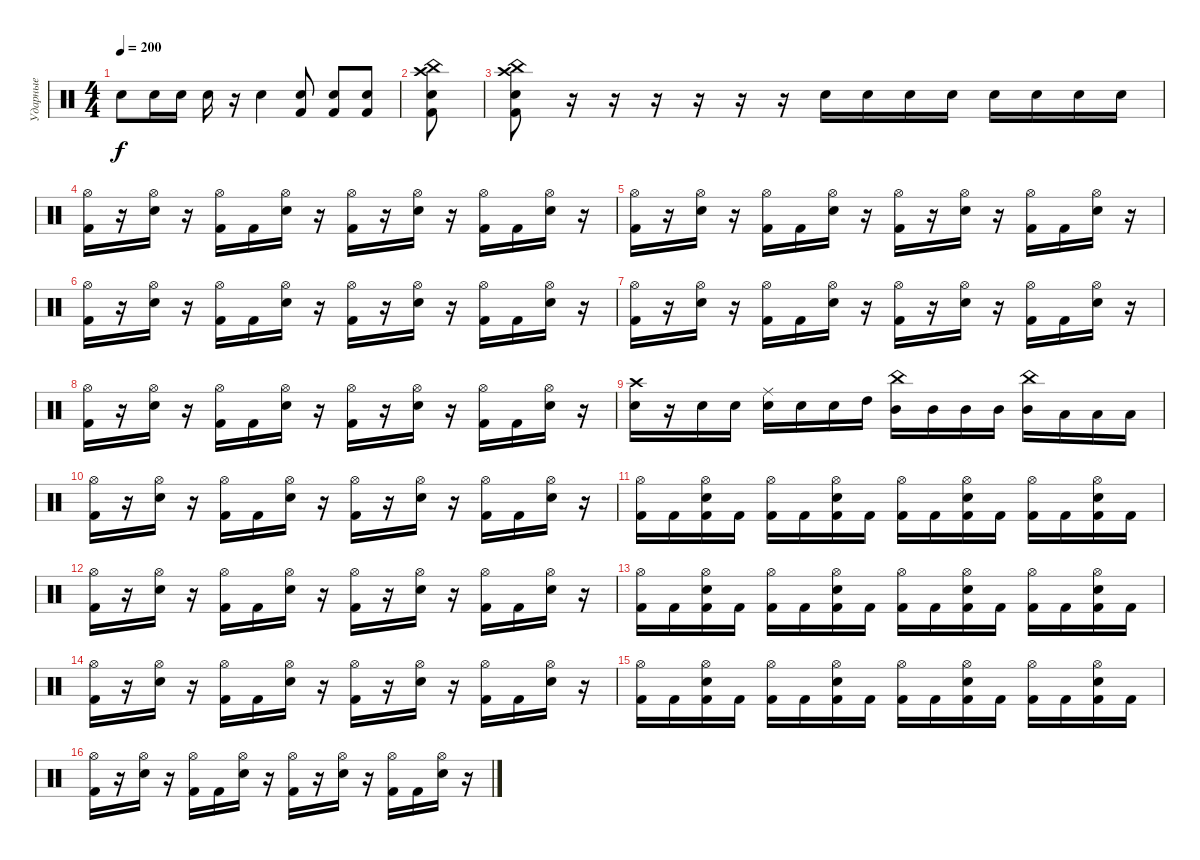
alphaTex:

\track ("Ударные" "Ударные") {instrument percussion}
\staff {score}
\articulation defaults
\ts (4 4)
\tempo 200
\clef neutral
\ks c "Electric Snare (hit)".8{dy f} "Electric Snare (hit)".16 "Electric Snare (hit)".16 "Electric Snare (hit)".16
r.16 "Electric Snare (hit)".4 ("Electric Snare (hit)" "Kick (hit) 2").8 ("Electric Snare (hit)" "Kick (hit) 2").8 ("Electric Snare (hit)" "Kick (hit) 2").8 |
("Kick (hit) 2" "Crash high (hit)" "China (hit)" "Electric Snare (hit)").8 |
("Kick (hit) 2" "Electric Snare (hit)" "Crash high (hit)" "China (hit)").8 r.16 r.16 r.16 r.16 r.16 r.16 "Electric Snare (hit)".16 "Electric Snare (hit)".16 "Electric Snare (hit)".16 "Electric Snare (hit)".16 "Electric Snare (hit)".16 "Electric Snare (hit)".16 "Electric Snare (hit)".16 "Electric Snare (hit)".16 |
("Kick (hit) 2" "Hi-Hat (open)").16 r.16 ("Electric Snare (hit)" "Hi-Hat (open)").16 r.16 ("Kick (hit) 2" "Hi-Hat (open)").16 "Kick (hit) 2".16 ("Electric Snare (hit)" "Hi-Hat (open)").16 r.16 ("Kick (hit) 2" "Hi-Hat (open)").16 r.16 ("Electric Snare (hit)" "Hi-Hat (open)").16 r.16 ("Kick (hit) 2" "Hi-Hat (open)").16 "Kick (hit) 2".16 ("Electric Snare (hit)" "Hi-Hat (open)").16 r.16 |
("Kick (hit) 2" "Hi-Hat (open)").16 r.16 ("Electric Snare (hit)" "Hi-Hat (open)").16 r.16 ("Kick (hit) 2" "Hi-Hat (open)").16 "Kick (hit) 2".16 ("Electric Snare (hit)" "Hi-Hat (open)").16 r.16 ("Kick (hit) 2" "Hi-Hat (open)").16 r.16 ("Electric Snare (hit)" "Hi-Hat (open)").16 r.16 ("Kick (hit) 2" "Hi-Hat (open)").16 "Kick (hit) 2".16 ("Electric Snare (hit)" "Hi-Hat (open)").16 r.16 |
("Kick (hit) 2" "Hi-Hat (open)").16 r.16 ("Electric Snare (hit)" "Hi-Hat (open)").16 r.16 ("Kick (hit) 2" "Hi-Hat (open)").16 "Kick (hit) 2".16 ("Electric Snare (hit)" "Hi-Hat (open)").16 r.16 ("Kick (hit) 2" "Hi-Hat (open)").16 r.16 ("Electric Snare (hit)" "Hi-Hat (open)").16 r.16 ("Kick (hit) 2" "Hi-Hat (open)").16 "Kick (hit) 2".16 ("Electric Snare (hit)" "Hi-Hat (open)").16 r.16 |
("Kick (hit) 2" "Hi-Hat (open)").16 r.16 ("Electric Snare (hit)" "Hi-Hat (open)").16 r.16 ("Kick (hit) 2" "Hi-Hat (open)").16 "Kick (hit) 2".16 ("Electric Snare (hit)" "Hi-Hat (open)").16 r.16 ("Kick (hit) 2" "Hi-Hat (open)").16 r.16 ("Electric Snare (hit)" "Hi-Hat (open)").16 r.16 ("Kick (hit) 2" "Hi-Hat (open)").16 "Kick (hit) 2".16 ("Electric Snare (hit)" "Hi-Hat (open)").16 r.16 |
("Kick (hit) 2" "Hi-Hat (open)").16 r.16 ("Electric Snare (hit)" "Hi-Hat (open)").16 r.16 ("Kick (hit) 2" "Hi-Hat (open)").16 "Kick (hit) 2".16 ("Electric Snare (hit)" "Hi-Hat (open)").16 r.16 ("Kick (hit) 2" "Hi-Hat (open)").16 r.16 ("Electric Snare (hit)" "Hi-Hat (open)").16 r.16 ("Kick (hit) 2" "Hi-Hat (open)").16 "Kick (hit) 2".16 ("Electric Snare (hit)" "Hi-Hat (open)").16 r.16 |
("Electric Snare (hit)" "Crash high (hit)").16 r.16 "Electric Snare (hit)".16 "Electric Snare (hit)".16 ("Electric Snare (hit)" "Ride (middle)").16 "Electric Snare (hit)".16 "Electric Snare (hit)".16 "High Tom (hit)".16 ("Mid Tom (hit)" "China (hit)").16 "Mid Tom (hit)".16 "Mid Tom (hit)".16 "Mid Tom (hit)".16 ("Mid Tom (hit)" "China (hit)").16 "Low Tom (hit)".16 "Low Tom (hit)".16 "Low Tom (hit)".16 |
("Kick (hit) 2" "Hi-Hat (open)").16 r.16 ("Electric Snare (hit)" "Hi-Hat (open)").16 r.16 ("Kick (hit) 2" "Hi-Hat (open)").16 "Kick (hit) 2".16 ("Electric Snare (hit)" "Hi-Hat (open)").16 r.16 ("Kick (hit) 2" "Hi-Hat (open)").16 r.16 ("Electric Snare (hit)" "Hi-Hat (open)").16 r.16 ("Kick (hit) 2" "Hi-Hat (open)").16 "Kick (hit) 2".16 ("Electric Snare (hit)" "Hi-Hat (open)").16 r.16 |
("Kick (hit) 2" "Hi-Hat (open)").16 "Kick (hit) 2".16 ("Kick (hit) 2" "Electric Snare (hit)" "Hi-Hat (open)").16 "Kick (hit) 2".16 ("Kick (hit) 2" "Hi-Hat (open)").16 "Kick (hit) 2".16 ("Kick (hit) 2" "Electric Snare (hit)" "Hi-Hat (open)").16 "Kick (hit) 2".16 ("Kick (hit) 2" "Hi-Hat (open)").16 "Kick (hit) 2".16 ("Kick (hit) 2" "Electric Snare (hit)" "Hi-Hat (open)").16 "Kick (hit) 2".16 ("Kick (hit) 2" "Hi-Hat (open)").16 "Kick (hit) 2".16 ("Kick (hit) 2" "Electric Snare (hit)" "Hi-Hat (open)").16 "Kick (hit) 2".16 |
("Kick (hit) 2" "Hi-Hat (open)").16 r.16 ("Electric Snare (hit)" "Hi-Hat (open)").16 r.16 ("Kick (hit) 2" "Hi-Hat (open)").16 "Kick (hit) 2".16 ("Electric Snare (hit)" "Hi-Hat (open)").16 r.16 ("Kick (hit) 2" "Hi-Hat (open)").16 r.16 ("Electric Snare (hit)" "Hi-Hat (open)").16 r.16 ("Kick (hit) 2" "Hi-Hat (open)").16 "Kick (hit) 2".16 ("Electric Snare (hit)" "Hi-Hat (open)").16 r.16 |
("Kick (hit) 2" "Hi-Hat (open)").16 "Kick (hit) 2".16 ("Kick (hit) 2" "Electric Snare (hit)" "Hi-Hat (open)").16 "Kick (hit) 2".16 ("Kick (hit) 2" "Hi-Hat (open)").16 "Kick (hit) 2".16 ("Kick (hit) 2" "Electric Snare (hit)" "Hi-Hat (open)").16 "Kick (hit) 2".16 ("Kick (hit) 2" "Hi-Hat (open)").16 "Kick (hit) 2".16 ("Kick (hit) 2" "Electric Snare (hit)" "Hi-Hat (open)").16 "Kick (hit) 2".16 ("Kick (hit) 2" "Hi-Hat (open)").16 "Kick (hit) 2".16 ("Kick (hit) 2" "Electric Snare (hit)" "Hi-Hat (open)").16 "Kick (hit) 2".16 |
("Kick (hit) 2" "Hi-Hat (open)").16 r.16 ("Electric Snare (hit)" "Hi-Hat (open)").16 r.16 ("Kick (hit) 2" "Hi-Hat (open)").16 "Kick (hit) 2".16 ("Electric Snare (hit)" "Hi-Hat (open)").16 r.16 ("Kick (hit) 2" "Hi-Hat (open)").16 r.16 ("Electric Snare (hit)" "Hi-Hat (open)").16 r.16 ("Kick (hit) 2" "Hi-Hat (open)").16 "Kick (hit) 2".16 ("Electric Snare (hit)" "Hi-Hat (open)").16 r.16 |
("Kick (hit) 2" "Hi-Hat (open)").16 "Kick (hit) 2".16 ("Kick (hit) 2" "Electric Snare (hit)" "Hi-Hat (open)").16 "Kick (hit) 2".16 ("Kick (hit) 2" "Hi-Hat (open)").16 "Kick (hit) 2".16 ("Kick (hit) 2" "Electric Snare (hit)" "Hi-Hat (open)").16 "Kick (hit) 2".16 ("Kick (hit) 2" "Hi-Hat (open)").16 "Kick (hit) 2".16 ("Kick (hit) 2" "Electric Snare (hit)" "Hi-Hat (open)").16 "Kick (hit) 2".16 ("Kick (hit) 2" "Hi-Hat (open)").16 "Kick (hit) 2".16 ("Kick (hit) 2" "Electric Snare (hit)" "Hi-Hat (open)").16 "Kick (hit) 2".16 |
("Kick (hit) 2" "Hi-Hat (open)").16 r.16 ("Electric Snare (hit)" "Hi-Hat (open)").16 r.16 ("Kick (hit) 2" "Hi-Hat (open)").16 "Kick (hit) 2".16 ("Electric Snare (hit)" "Hi-Hat (open)").16 r.16 ("Kick (hit) 2" "Hi-Hat (open)").16 r.16 ("Electric Snare (hit)" "Hi-Hat (open)").16 r.16 ("Kick (hit) 2" "Hi-Hat (open)").16 "Kick (hit) 2".16 ("Electric Snare (hit)" "Hi-Hat (open)").16 r.16
